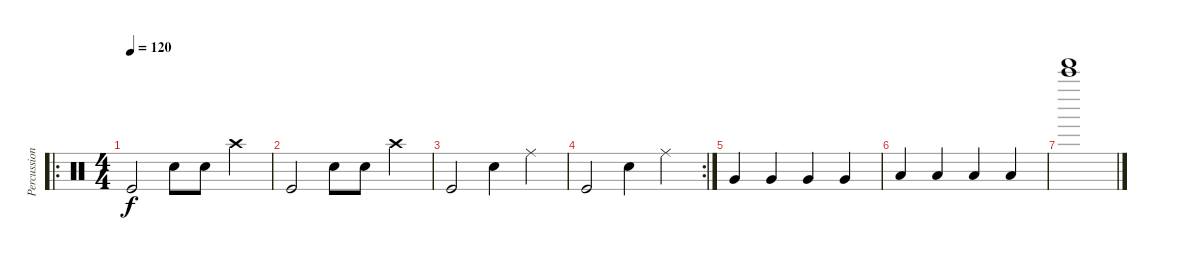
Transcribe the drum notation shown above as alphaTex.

\track ("Percussion" "Percussion") {instrument percussion}
\staff {score}
\articulation defaults
\ro
\ts (4 4)
\tempo 120
\clef neutral
\ks c "Kick (hit)".2{dy f} "Snare (hit) 2".8 "Snare (hit) 2".8 "Crash high (hit)".4
|
"Kick (hit)".2 "Snare (hit) 2".8 "Snare (hit) 2".8 "Crash high (hit)".4 |
"Kick (hit)".2 "Snare (hit) 2".4 "Ride (middle)".4 |
\rc 2 "Kick (hit)".2 "Snare (hit) 2".4 "Ride (middle)".4
|
"Very Low Tom (hit)".4 "Very Low Tom (hit)".4 "Very Low Tom (hit)".4 "Very Low Tom (hit)".4 |
"Low Floor Tom (hit)".4 "Low Floor Tom (hit)".4 "Low Floor Tom (hit)".4 "Low Floor Tom (hit)".4 |
("Bell Tree (hit)" "Tinkle Bell (hit)").1
